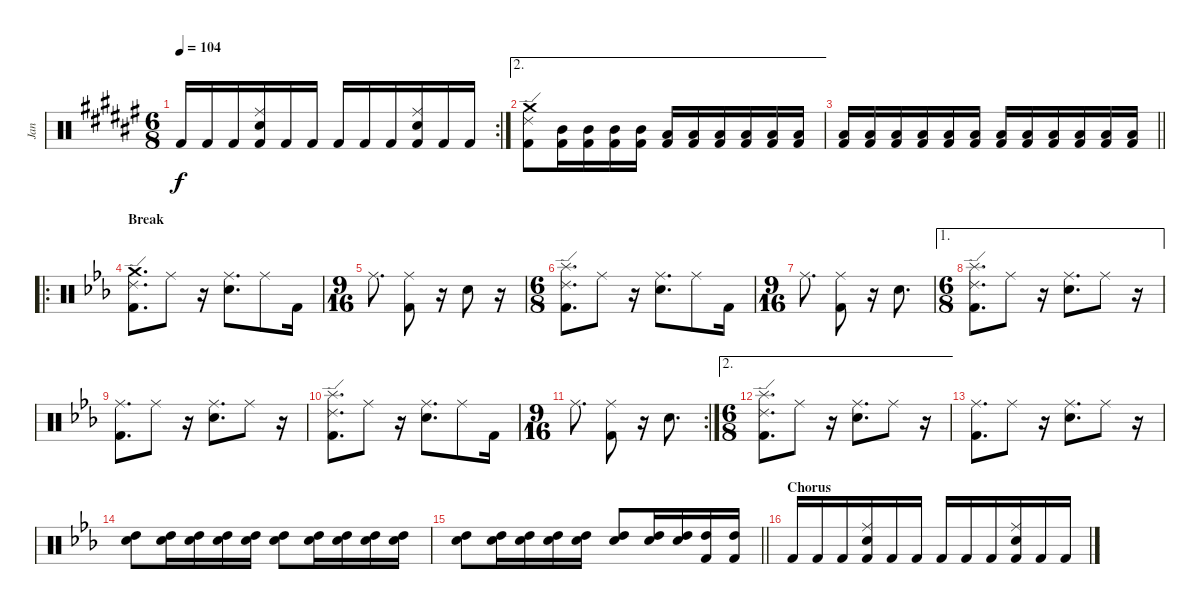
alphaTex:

\track ("Jan" "Jan") {instrument percussion}
\staff {score}
\articulation defaults
\rc 2
\ts (6 8)
\tempo 104
\clef neutral
\ks f# "Kick (hit) 2".16{dy f} "Kick (hit) 2".16 "Kick (hit) 2".16
("Ride (middle)" "Snare (hit) 2" "Kick (hit) 2").16 "Kick (hit) 2".16 "Kick (hit) 2".16 "Kick (hit) 2".16 "Kick (hit) 2".16 "Kick (hit) 2".16 ("Ride (middle)" "Snare (hit) 2" "Kick (hit) 2").16 "Kick (hit) 2".16 "Kick (hit) 2".16 |
\ae 2
("Ride (edge) 2" "Crash medium (hit)" "Kick (hit) 2").8 ("Mid Tom (hit)" "Kick (hit) 2").16 ("Mid Tom (hit)" "Kick (hit) 2").16 ("Mid Tom (hit)" "Kick (hit) 2").16 ("Mid Tom (hit)" "Kick (hit) 2").16 ("Low Tom (hit)" "Kick (hit) 2").16 ("Low Tom (hit)" "Kick (hit) 2").16 ("Low Tom (hit)" "Kick (hit) 2").16 ("Low Tom (hit)" "Kick (hit) 2").16 ("Low Tom (hit)" "Kick (hit) 2").16 ("Low Tom (hit)" "Kick (hit) 2").16 |
\barLineRight lightlight
("Low Floor Tom (hit)" "Kick (hit) 2").16 ("Low Floor Tom (hit)" "Kick (hit) 2").16 ("Low Floor Tom (hit)" "Kick (hit) 2").16 ("Low Floor Tom (hit)" "Kick (hit) 2").16 ("Low Floor Tom (hit)" "Kick (hit) 2").16 ("Low Floor Tom (hit)" "Kick (hit) 2").16 ("Low Floor Tom (hit)" "Kick (hit) 2").16 ("Low Floor Tom (hit)" "Kick (hit) 2").16 ("Low Floor Tom (hit)" "Kick (hit) 2").16 ("Low Floor Tom (hit)" "Kick (hit) 2").16 ("Low Floor Tom (hit)" "Kick (hit) 2").16 ("Low Floor Tom (hit)" "Kick (hit) 2").16 |
\ro
\section ("" "Break")
\ks eb
("Crash medium (hit)" "Ride (edge) 2" "Kick (hit) 2").8{d} "Ride (middle)".8 r.16 ("Ride (middle)" "Snare (hit) 2").8{d} "Ride (middle)".8 "Kick (hit) 2".16 |
\ts (9 16)
"Ride (middle)".8{d} ("Ride (middle)" "Kick (hit) 2").8 r.16 "Snare (hit) 2".8 r.16 |
\ts (6 8)
("Splash (hit)" "Ride (edge) 2" "Kick (hit) 2").8{d} "Ride (middle)".8 r.16 ("Ride (middle)" "Snare (hit) 2").8{d} "Ride (middle)".8 "Kick (hit) 2".16 |
\ts (9 16)
"Ride (middle)".8{d} ("Ride (middle)" "Kick (hit) 2").8 r.16 "Snare (hit) 2".8{d} |
\ae 1
\ts (6 8)
("Splash (hit)" "Ride (edge) 2" "Kick (hit) 2").8{d} "Ride (middle)".8 r.16 ("Ride (middle)" "Snare (hit) 2").8{d} "Ride (middle)".8 r.16 |
("Ride (middle)" "Kick (hit) 2").8{d} "Ride (middle)".8 r.16 ("Ride (middle)" "Snare (hit) 2").8{d} "Ride (middle)".8 r.16 |
("Splash (hit)" "Ride (edge) 2" "Kick (hit) 2").8{d} "Ride (middle)".8 r.16 ("Ride (middle)" "Snare (hit) 2").8{d} "Ride (middle)".8 "Kick (hit) 2".16 |
\rc 2
\ts (9 16)
"Ride (middle)".8{d} ("Ride (middle)" "Kick (hit) 2").8 r.16 "Snare (hit) 2".8{d} |
\ae 2
\ts (6 8)
("Splash (hit)" "Ride (edge) 2" "Kick (hit) 2").8{d} "Ride (middle)".8 r.16 ("Ride (middle)" "Snare (hit) 2").8{d} "Ride (middle)".8 r.16 |
("Ride (middle)" "Kick (hit) 2").8{d} "Ride (middle)".8 r.16 ("Ride (middle)" "Snare (hit) 2").8{d} "Ride (middle)".8 r.16 |
("High Tom (hit)" "Snare (hit) 2").8 ("High Tom (hit)" "Snare (hit) 2").16 ("High Tom (hit)" "Snare (hit) 2").16 ("High Tom (hit)" "Snare (hit) 2").16 ("High Tom (hit)" "Snare (hit) 2").16 ("High Tom (hit)" "Snare (hit) 2").8 ("High Tom (hit)" "Snare (hit) 2").16 ("High Tom (hit)" "Snare (hit) 2").16 ("High Tom (hit)" "Snare (hit) 2").16 ("High Tom (hit)" "Snare (hit) 2").16 |
\barLineRight lightlight
("High Tom (hit)" "Snare (hit) 2").8 ("High Tom (hit)" "Snare (hit) 2").16 ("High Tom (hit)" "Snare (hit) 2").16 ("High Tom (hit)" "Snare (hit) 2").16 ("High Tom (hit)" "Snare (hit) 2").16 ("High Tom (hit)" "Snare (hit) 2").8 ("High Tom (hit)" "Snare (hit) 2").16 ("High Tom (hit)" "Snare (hit) 2").16 ("High Tom (hit)" "Kick (hit) 2").16 ("High Tom (hit)" "Kick (hit) 2").16 |
\section ("" "Chorus")
"Kick (hit) 2".16 "Kick (hit) 2".16 "Kick (hit) 2".16 ("Ride (middle)" "Snare (hit) 2" "Kick (hit) 2").16 "Kick (hit) 2".16 "Kick (hit) 2".16 "Kick (hit) 2".16 "Kick (hit) 2".16 "Kick (hit) 2".16 ("Ride (middle)" "Snare (hit) 2" "Kick (hit) 2").16 "Kick (hit) 2".16 "Kick (hit) 2".16
